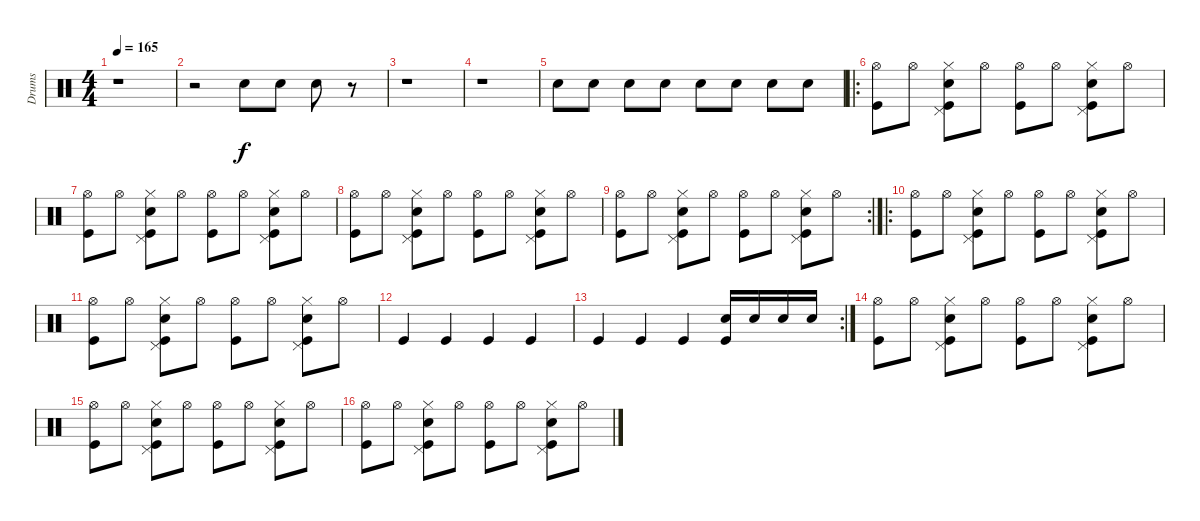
\track ("Drums" "Drums") {instrument percussion}
\staff {score}
\articulation defaults
\ts (4 4)
\tempo 165
\clef neutral
\ks c
r.1{dy f} |
r.2 "Snare (hit) 2".8 "Snare (hit) 2".8 "Snare (hit) 2".8 r.8 |
r.1 |
r.1 |
"Snare (hit) 2".8 "Snare (hit) 2".8 "Snare (hit) 2".8 "Snare (hit) 2".8 "Snare (hit) 2".8 "Snare (hit) 2".8 "Snare (hit) 2".8 "Snare (hit) 2".8 |
\ro
("Hi-Hat (open)" "Kick (hit)").8 "Hi-Hat (open)".8 ("Hi-Hat (closed)" "Pedal Hi-Hat (hit)" "Snare (hit) 2" "Kick (hit)").8 "Hi-Hat (open)".8 ("Hi-Hat (open)" "Kick (hit)").8 "Hi-Hat (open)".8 ("Hi-Hat (closed)" "Pedal Hi-Hat (hit)" "Snare (hit) 2" "Kick (hit)").8 "Hi-Hat (open)".8 |
("Hi-Hat (open)" "Kick (hit)").8 "Hi-Hat (open)".8 ("Hi-Hat (closed)" "Pedal Hi-Hat (hit)" "Snare (hit) 2" "Kick (hit)").8 "Hi-Hat (open)".8 ("Hi-Hat (open)" "Kick (hit)").8 "Hi-Hat (open)".8 ("Hi-Hat (closed)" "Pedal Hi-Hat (hit)" "Snare (hit) 2" "Kick (hit)").8 "Hi-Hat (open)".8 |
("Hi-Hat (open)" "Kick (hit)").8 "Hi-Hat (open)".8 ("Hi-Hat (closed)" "Pedal Hi-Hat (hit)" "Snare (hit) 2" "Kick (hit)").8 "Hi-Hat (open)".8 ("Hi-Hat (open)" "Kick (hit)").8 "Hi-Hat (open)".8 ("Hi-Hat (closed)" "Pedal Hi-Hat (hit)" "Snare (hit) 2" "Kick (hit)").8 "Hi-Hat (open)".8 |
\rc 2
("Hi-Hat (open)" "Kick (hit)").8 "Hi-Hat (open)".8 ("Hi-Hat (closed)" "Pedal Hi-Hat (hit)" "Snare (hit) 2" "Kick (hit)").8 "Hi-Hat (open)".8 ("Hi-Hat (open)" "Kick (hit)").8 "Hi-Hat (open)".8 ("Hi-Hat (closed)" "Pedal Hi-Hat (hit)" "Snare (hit) 2" "Kick (hit)").8 "Hi-Hat (open)".8 |
\ro
("Hi-Hat (open)" "Kick (hit)").8 "Hi-Hat (open)".8 ("Hi-Hat (closed)" "Pedal Hi-Hat (hit)" "Snare (hit) 2" "Kick (hit)").8 "Hi-Hat (open)".8 ("Hi-Hat (open)" "Kick (hit)").8 "Hi-Hat (open)".8 ("Hi-Hat (closed)" "Pedal Hi-Hat (hit)" "Snare (hit) 2" "Kick (hit)").8 "Hi-Hat (open)".8 |
("Hi-Hat (open)" "Kick (hit)").8 "Hi-Hat (open)".8 ("Hi-Hat (closed)" "Pedal Hi-Hat (hit)" "Snare (hit) 2" "Kick (hit)").8 "Hi-Hat (open)".8 ("Hi-Hat (open)" "Kick (hit)").8 "Hi-Hat (open)".8 ("Hi-Hat (closed)" "Pedal Hi-Hat (hit)" "Snare (hit) 2" "Kick (hit)").8 "Hi-Hat (open)".8 |
"Kick (hit)".4 "Kick (hit)".4 "Kick (hit)".4 "Kick (hit)".4 |
\rc 2 "Kick (hit)".4 "Kick (hit)".4 "Kick (hit)".4
("Snare (hit) 2" "Kick (hit)").16 "Snare (hit) 2".16 "Snare (hit) 2".16 "Snare (hit) 2".16 |
("Hi-Hat (open)" "Kick (hit)").8 "Hi-Hat (open)".8 ("Hi-Hat (closed)" "Pedal Hi-Hat (hit)" "Snare (hit) 2" "Kick (hit)").8 "Hi-Hat (open)".8 ("Hi-Hat (open)" "Kick (hit)").8 "Hi-Hat (open)".8 ("Hi-Hat (closed)" "Pedal Hi-Hat (hit)" "Snare (hit) 2" "Kick (hit)").8 "Hi-Hat (open)".8 |
("Hi-Hat (open)" "Kick (hit)").8 "Hi-Hat (open)".8 ("Hi-Hat (closed)" "Pedal Hi-Hat (hit)" "Snare (hit) 2" "Kick (hit)").8 "Hi-Hat (open)".8 ("Hi-Hat (open)" "Kick (hit)").8 "Hi-Hat (open)".8 ("Hi-Hat (closed)" "Pedal Hi-Hat (hit)" "Snare (hit) 2" "Kick (hit)").8 "Hi-Hat (open)".8 |
("Hi-Hat (open)" "Kick (hit)").8 "Hi-Hat (open)".8 ("Hi-Hat (closed)" "Pedal Hi-Hat (hit)" "Snare (hit) 2" "Kick (hit)").8 "Hi-Hat (open)".8 ("Hi-Hat (open)" "Kick (hit)").8 "Hi-Hat (open)".8 ("Hi-Hat (closed)" "Pedal Hi-Hat (hit)" "Snare (hit) 2" "Kick (hit)").8 "Hi-Hat (open)".8
